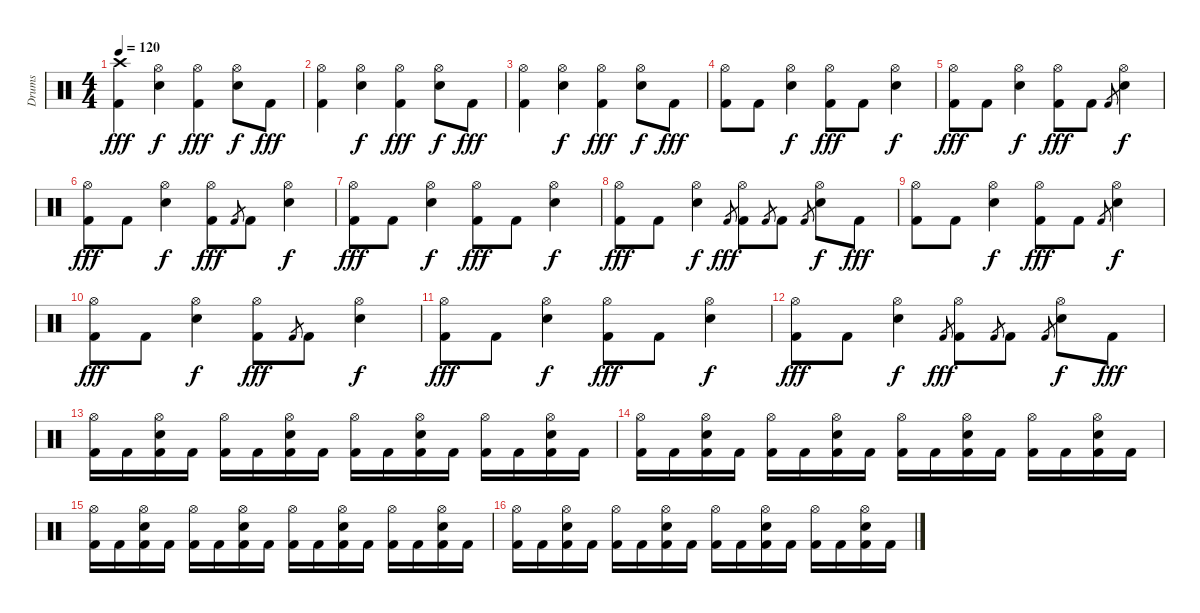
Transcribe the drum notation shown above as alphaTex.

\track ("Drums" "Drums") {instrument percussion}
\staff {score}
\articulation defaults
\ts (4 4)
\tempo 120
\clef neutral
\ks c
("Crash high (hit)" "Kick (hit) 2").4{dy fff} ("Hi-Hat (open)" "Electric Snare (hit)").4{dy f} ("Hi-Hat (open)" "Kick (hit) 2").4{dy fff} ("Hi-Hat (open)" "Electric Snare (hit)").8{dy f} "Kick (hit) 2".8{dy fff} |
("Hi-Hat (open)" "Kick (hit) 2").4 ("Hi-Hat (open)" "Electric Snare (hit)").4{dy f} ("Hi-Hat (open)" "Kick (hit) 2").4{dy fff} ("Hi-Hat (open)" "Electric Snare (hit)").8{dy f} "Kick (hit) 2".8{dy fff} |
("Hi-Hat (open)" "Kick (hit) 2").4 ("Hi-Hat (open)" "Electric Snare (hit)").4{dy f} ("Hi-Hat (open)" "Kick (hit) 2").4{dy fff} ("Hi-Hat (open)" "Electric Snare (hit)").8{dy f} "Kick (hit) 2".8{dy fff} |
("Hi-Hat (open)" "Kick (hit) 2").8 "Kick (hit) 2".8 ("Hi-Hat (open)" "Electric Snare (hit)").4{dy f} ("Hi-Hat (open)" "Kick (hit) 2").8{dy fff} "Kick (hit) 2".8 ("Hi-Hat (open)" "Electric Snare (hit)").4{dy f} |
("Hi-Hat (open)" "Kick (hit) 2").8{dy fff} "Kick (hit) 2".8 ("Hi-Hat (open)" "Electric Snare (hit)").4{dy f} ("Hi-Hat (open)" "Kick (hit) 2").8{dy fff} "Kick (hit) 2".8 "Kick (hit) 2".8{gr} ("Hi-Hat (open)" "Electric Snare (hit)").4{dy f} |
("Hi-Hat (open)" "Kick (hit) 2").8{dy fff} "Kick (hit) 2".8 ("Hi-Hat (open)" "Electric Snare (hit)").4{dy f} ("Hi-Hat (open)" "Kick (hit) 2").8{dy fff} "Kick (hit) 2".8{gr} "Kick (hit) 2".8 ("Hi-Hat (open)" "Electric Snare (hit)").4{dy f} |
("Hi-Hat (open)" "Kick (hit) 2").8{dy fff} "Kick (hit) 2".8 ("Hi-Hat (open)" "Electric Snare (hit)").4{dy f} ("Hi-Hat (open)" "Kick (hit) 2").8{dy fff} "Kick (hit) 2".8 ("Hi-Hat (open)" "Electric Snare (hit)").4{dy f} |
("Hi-Hat (open)" "Kick (hit) 2").8{dy fff} "Kick (hit) 2".8 ("Hi-Hat (open)" "Electric Snare (hit)").4{dy f} "Kick (hit) 2".8{gr dy fff} ("Hi-Hat (open)" "Kick (hit) 2").8 "Kick (hit) 2".8{gr} "Kick (hit) 2".8 "Kick (hit) 2".8{gr} ("Hi-Hat (open)" "Electric Snare (hit)").8{dy f} "Kick (hit) 2".8{dy fff} |
("Hi-Hat (open)" "Kick (hit) 2").8 "Kick (hit) 2".8 ("Hi-Hat (open)" "Electric Snare (hit)").4{dy f} ("Hi-Hat (open)" "Kick (hit) 2").8{dy fff} "Kick (hit) 2".8 "Kick (hit) 2".8{gr} ("Hi-Hat (open)" "Electric Snare (hit)").4{dy f} |
("Hi-Hat (open)" "Kick (hit) 2").8{dy fff} "Kick (hit) 2".8 ("Hi-Hat (open)" "Electric Snare (hit)").4{dy f} ("Hi-Hat (open)" "Kick (hit) 2").8{dy fff} "Kick (hit) 2".8{gr} "Kick (hit) 2".8 ("Hi-Hat (open)" "Electric Snare (hit)").4{dy f} |
("Hi-Hat (open)" "Kick (hit) 2").8{dy fff} "Kick (hit) 2".8 ("Hi-Hat (open)" "Electric Snare (hit)").4{dy f} ("Hi-Hat (open)" "Kick (hit) 2").8{dy fff} "Kick (hit) 2".8 ("Hi-Hat (open)" "Electric Snare (hit)").4{dy f} |
("Hi-Hat (open)" "Kick (hit) 2").8{dy fff} "Kick (hit) 2".8 ("Hi-Hat (open)" "Electric Snare (hit)").4{dy f} "Kick (hit) 2".8{gr dy fff} ("Hi-Hat (open)" "Kick (hit) 2").8 "Kick (hit) 2".8{gr} "Kick (hit) 2".8 "Kick (hit) 2".8{gr} ("Hi-Hat (open)" "Electric Snare (hit)").8{dy f} "Kick (hit) 2".8{dy fff} |
("Hi-Hat (open)" "Kick (hit) 2").16 "Kick (hit) 2".16 ("Hi-Hat (open)" "Electric Snare (hit)" "Kick (hit) 2").16 "Kick (hit) 2".16 ("Hi-Hat (open)" "Kick (hit) 2").16 "Kick (hit) 2".16 ("Hi-Hat (open)" "Electric Snare (hit)" "Kick (hit) 2").16 "Kick (hit) 2".16 ("Hi-Hat (open)" "Kick (hit) 2").16 "Kick (hit) 2".16 ("Hi-Hat (open)" "Electric Snare (hit)" "Kick (hit) 2").16 "Kick (hit) 2".16 ("Hi-Hat (open)" "Kick (hit) 2").16 "Kick (hit) 2".16 ("Hi-Hat (open)" "Electric Snare (hit)" "Kick (hit) 2").16 "Kick (hit) 2".16 |
("Hi-Hat (open)" "Kick (hit) 2").16 "Kick (hit) 2".16 ("Hi-Hat (open)" "Electric Snare (hit)" "Kick (hit) 2").16 "Kick (hit) 2".16 ("Hi-Hat (open)" "Kick (hit) 2").16 "Kick (hit) 2".16 ("Hi-Hat (open)" "Electric Snare (hit)" "Kick (hit) 2").16 "Kick (hit) 2".16 ("Hi-Hat (open)" "Kick (hit) 2").16 "Kick (hit) 2".16 ("Hi-Hat (open)" "Electric Snare (hit)" "Kick (hit) 2").16 "Kick (hit) 2".16 ("Hi-Hat (open)" "Kick (hit) 2").16 "Kick (hit) 2".16 ("Hi-Hat (open)" "Electric Snare (hit)" "Kick (hit) 2").16 "Kick (hit) 2".16 |
("Hi-Hat (open)" "Kick (hit) 2").16 "Kick (hit) 2".16 ("Hi-Hat (open)" "Electric Snare (hit)" "Kick (hit) 2").16 "Kick (hit) 2".16 ("Hi-Hat (open)" "Kick (hit) 2").16 "Kick (hit) 2".16 ("Hi-Hat (open)" "Electric Snare (hit)" "Kick (hit) 2").16 "Kick (hit) 2".16 ("Hi-Hat (open)" "Kick (hit) 2").16 "Kick (hit) 2".16 ("Hi-Hat (open)" "Electric Snare (hit)" "Kick (hit) 2").16 "Kick (hit) 2".16 ("Hi-Hat (open)" "Kick (hit) 2").16 "Kick (hit) 2".16 ("Hi-Hat (open)" "Electric Snare (hit)" "Kick (hit) 2").16 "Kick (hit) 2".16 |
("Hi-Hat (open)" "Kick (hit) 2").16 "Kick (hit) 2".16 ("Hi-Hat (open)" "Electric Snare (hit)" "Kick (hit) 2").16 "Kick (hit) 2".16 ("Hi-Hat (open)" "Kick (hit) 2").16 "Kick (hit) 2".16 ("Hi-Hat (open)" "Electric Snare (hit)" "Kick (hit) 2").16 "Kick (hit) 2".16 ("Hi-Hat (open)" "Kick (hit) 2").16 "Kick (hit) 2".16 ("Hi-Hat (open)" "Electric Snare (hit)" "Kick (hit) 2").16 "Kick (hit) 2".16 ("Hi-Hat (open)" "Kick (hit) 2").16 "Kick (hit) 2".16 ("Hi-Hat (open)" "Electric Snare (hit)" "Kick (hit) 2").16 "Kick (hit) 2".16
